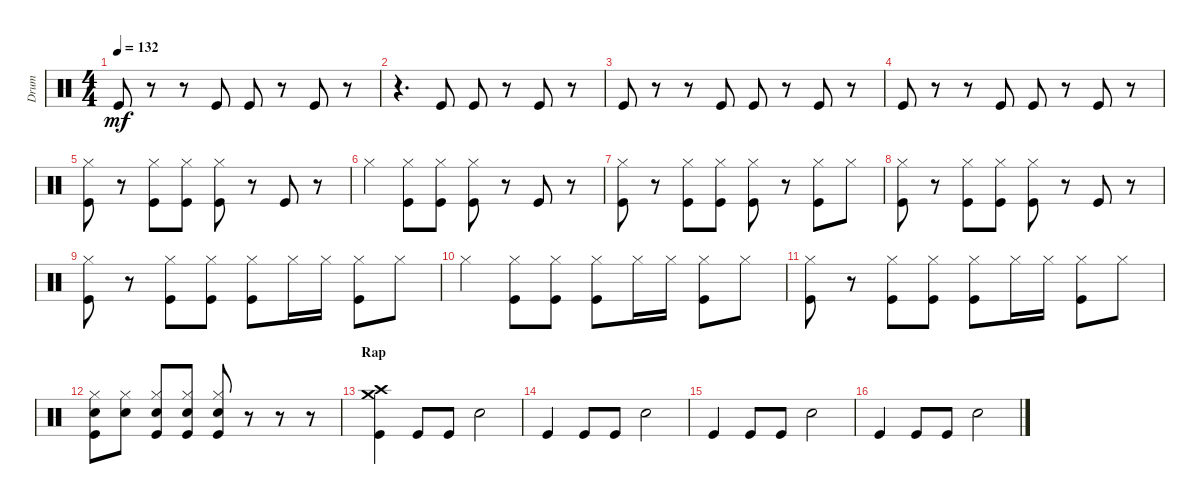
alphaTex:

\track ("Drum" "Drum") {instrument percussion}
\staff {score}
\articulation defaults
\ts (4 4)
\tempo 132
\clef neutral
\ks c "Kick (hit)".8{dy mf}
r.8 r.8 "Kick (hit)".8 "Kick (hit)".8 r.8 "Kick (hit)".8 r.8 |
r.4{d} "Kick (hit)".8 "Kick (hit)".8 r.8 "Kick (hit)".8 r.8 |
"Kick (hit)".8 r.8 r.8 "Kick (hit)".8 "Kick (hit)".8 r.8 "Kick (hit)".8 r.8 |
"Kick (hit)".8 r.8 r.8 "Kick (hit)".8 "Kick (hit)".8 r.8 "Kick (hit)".8 r.8 |
("Kick (hit)" "Hi-Hat (closed)").8 r.8 ("Kick (hit)" "Hi-Hat (closed)").8 ("Kick (hit)" "Hi-Hat (closed)").8 ("Kick (hit)" "Hi-Hat (closed)").8 r.8 "Kick (hit)".8 r.8 |
"Hi-Hat (closed)".4 ("Kick (hit)" "Hi-Hat (closed)").8 ("Kick (hit)" "Hi-Hat (closed)").8 ("Kick (hit)" "Hi-Hat (closed)").8 r.8 "Kick (hit)".8 r.8 |
("Kick (hit)" "Hi-Hat (closed)").8 r.8 ("Kick (hit)" "Hi-Hat (closed)").8 ("Kick (hit)" "Hi-Hat (closed)").8 ("Kick (hit)" "Hi-Hat (closed)").8 r.8 ("Kick (hit)" "Hi-Hat (closed)").8 "Hi-Hat (closed)".8 |
("Kick (hit)" "Hi-Hat (closed)").8 r.8 ("Kick (hit)" "Hi-Hat (closed)").8 ("Kick (hit)" "Hi-Hat (closed)").8 ("Kick (hit)" "Hi-Hat (closed)").8 r.8 "Kick (hit)".8 r.8 |
("Kick (hit)" "Hi-Hat (closed)").8 r.8 ("Kick (hit)" "Hi-Hat (closed)").8 ("Kick (hit)" "Hi-Hat (closed)").8 ("Kick (hit)" "Hi-Hat (closed)").8 "Hi-Hat (closed)".16 "Hi-Hat (closed)".16 ("Kick (hit)" "Hi-Hat (closed)").8 "Hi-Hat (closed)".8 |
"Hi-Hat (closed)".4 ("Kick (hit)" "Hi-Hat (closed)").8 ("Kick (hit)" "Hi-Hat (closed)").8 ("Kick (hit)" "Hi-Hat (closed)").8 "Hi-Hat (closed)".16 "Hi-Hat (closed)".16 ("Kick (hit)" "Hi-Hat (closed)").8 "Hi-Hat (closed)".8 |
("Kick (hit)" "Hi-Hat (closed)").8 r.8 ("Kick (hit)" "Hi-Hat (closed)").8 ("Kick (hit)" "Hi-Hat (closed)").8 ("Kick (hit)" "Hi-Hat (closed)").8 "Hi-Hat (closed)".16 "Hi-Hat (closed)".16 ("Kick (hit)" "Hi-Hat (closed)").8 "Hi-Hat (closed)".8 |
("Kick (hit)" "Snare (hit) 2" "Hi-Hat (closed)").8 ("Snare (hit) 2" "Hi-Hat (closed)").8 ("Kick (hit)" "Snare (hit) 2" "Hi-Hat (closed)").8 ("Kick (hit)" "Snare (hit) 2" "Hi-Hat (closed)").8 ("Kick (hit)" "Snare (hit) 2" "Hi-Hat (closed)").8 r.8 r.8 r.8 |
\section ("" "Rap")
("Kick (hit)" "Crash high (hit)" "Crash medium (hit)").4 "Kick (hit)".8 "Kick (hit)".8 "Snare (hit) 2".2 |
"Kick (hit)".4 "Kick (hit)".8 "Kick (hit)".8 "Snare (hit) 2".2 |
"Kick (hit)".4 "Kick (hit)".8 "Kick (hit)".8 "Snare (hit) 2".2 |
"Kick (hit)".4 "Kick (hit)".8 "Kick (hit)".8 "Snare (hit) 2".2
